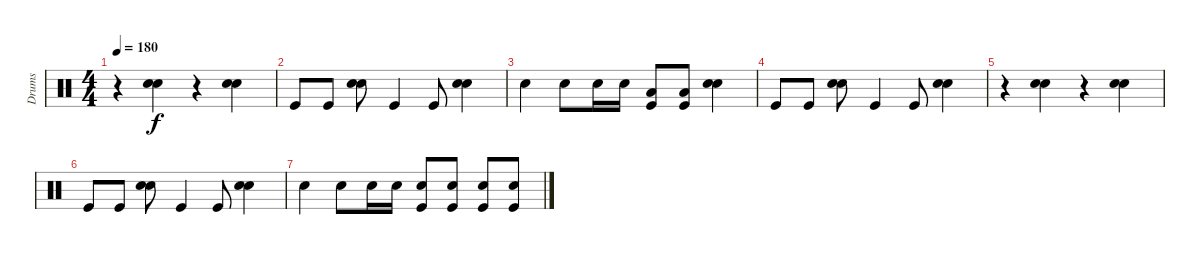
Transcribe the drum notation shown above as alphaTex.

\track ("Drums" "Drums") {instrument percussion}
\staff {score}
\articulation defaults
\ts (4 4)
\tempo 180
\clef neutral
\ks c
r.4{dy f} ("Snare (hit) 2" "Electric Snare (hit)").4 r.4 ("Snare (hit) 2" "Electric Snare (hit)").4 |
"Kick (hit)".8 "Kick (hit)".8 ("Snare (hit) 2" "Electric Snare (hit)").8 "Kick (hit)".4 "Kick (hit)".8 ("Snare (hit) 2" "Electric Snare (hit)").4 |
"Electric Snare (hit)".4 "Snare (hit) 2".8 "Snare (hit) 2".16 "Snare (hit) 2".16 ("Low Tom (hit)" "Kick (hit)").8 ("Low Tom (hit)" "Kick (hit)").8 ("Snare (hit) 2" "Electric Snare (hit)").4 |
"Kick (hit)".8 "Kick (hit)".8 ("Snare (hit) 2" "Electric Snare (hit)").8 "Kick (hit)".4 "Kick (hit)".8 ("Snare (hit) 2" "Electric Snare (hit)").4 |
r.4 ("Snare (hit) 2" "Electric Snare (hit)").4 r.4 ("Snare (hit) 2" "Electric Snare (hit)").4 |
"Kick (hit)".8 "Kick (hit)".8 ("Snare (hit) 2" "Electric Snare (hit)").8 "Kick (hit)".4 "Kick (hit)".8 ("Snare (hit) 2" "Electric Snare (hit)").4 |
"Electric Snare (hit)".4 "Snare (hit) 2".8 "Snare (hit) 2".16 "Snare (hit) 2".16 ("Snare (hit) 2" "Kick (hit)").8 ("Snare (hit) 2" "Kick (hit)").8 ("Snare (hit) 2" "Kick (hit)").8 ("Snare (hit) 2" "Kick (hit)").8
